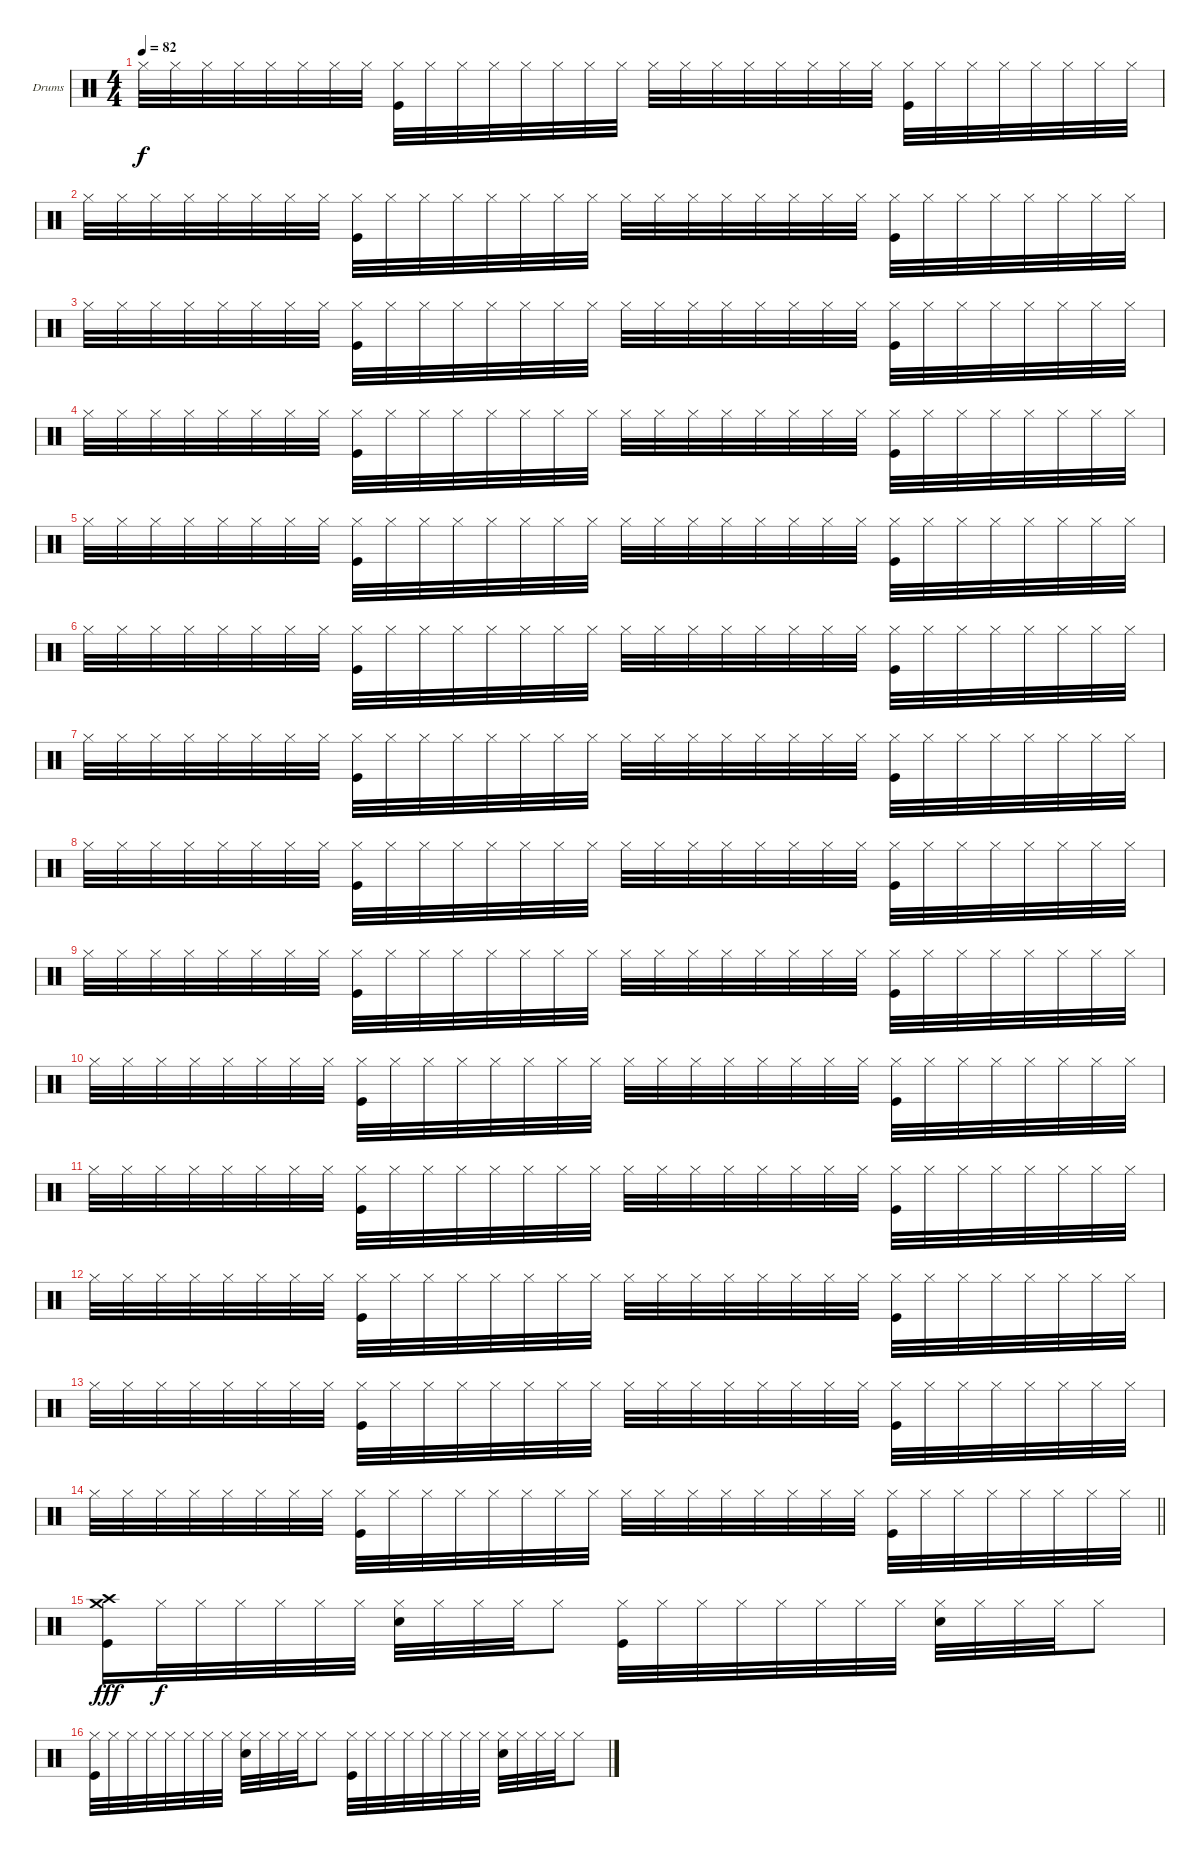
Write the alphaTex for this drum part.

\bracketExtendMode groupsimilarinstruments
\firstSystemTrackNameOrientation horizontal
\otherSystemsTrackNameOrientation horizontal
\track ("Александр Манякин" "Drums") {instrument percussion}
\staff {score}
\articulation defaults
\ts (4 4)
\tempo 82
\clef neutral
\ks c "Hi-Hat (closed)".32{dy f} "Hi-Hat (closed)".32 "Hi-Hat (closed)".32 "Hi-Hat (closed)".32 "Hi-Hat (closed)".32 "Hi-Hat (closed)".32 "Hi-Hat (closed)".32 "Hi-Hat (closed)".32
("Hi-Hat (closed)" "Kick (hit)").32 "Hi-Hat (closed)".32 "Hi-Hat (closed)".32 "Hi-Hat (closed)".32 "Hi-Hat (closed)".32 "Hi-Hat (closed)".32 "Hi-Hat (closed)".32 "Hi-Hat (closed)".32 "Hi-Hat (closed)".32 "Hi-Hat (closed)".32 "Hi-Hat (closed)".32 "Hi-Hat (closed)".32 "Hi-Hat (closed)".32 "Hi-Hat (closed)".32 "Hi-Hat (closed)".32 "Hi-Hat (closed)".32 ("Hi-Hat (closed)" "Kick (hit)").32 "Hi-Hat (closed)".32 "Hi-Hat (closed)".32 "Hi-Hat (closed)".32 "Hi-Hat (closed)".32 "Hi-Hat (closed)".32 "Hi-Hat (closed)".32 "Hi-Hat (closed)".32 |
"Hi-Hat (closed)".32 "Hi-Hat (closed)".32 "Hi-Hat (closed)".32 "Hi-Hat (closed)".32 "Hi-Hat (closed)".32 "Hi-Hat (closed)".32 "Hi-Hat (closed)".32 "Hi-Hat (closed)".32 ("Hi-Hat (closed)" "Kick (hit)").32 "Hi-Hat (closed)".32 "Hi-Hat (closed)".32 "Hi-Hat (closed)".32 "Hi-Hat (closed)".32 "Hi-Hat (closed)".32 "Hi-Hat (closed)".32 "Hi-Hat (closed)".32 "Hi-Hat (closed)".32 "Hi-Hat (closed)".32 "Hi-Hat (closed)".32 "Hi-Hat (closed)".32 "Hi-Hat (closed)".32 "Hi-Hat (closed)".32 "Hi-Hat (closed)".32 "Hi-Hat (closed)".32 ("Hi-Hat (closed)" "Kick (hit)").32 "Hi-Hat (closed)".32 "Hi-Hat (closed)".32 "Hi-Hat (closed)".32 "Hi-Hat (closed)".32 "Hi-Hat (closed)".32 "Hi-Hat (closed)".32 "Hi-Hat (closed)".32 |
"Hi-Hat (closed)".32 "Hi-Hat (closed)".32 "Hi-Hat (closed)".32 "Hi-Hat (closed)".32 "Hi-Hat (closed)".32 "Hi-Hat (closed)".32 "Hi-Hat (closed)".32 "Hi-Hat (closed)".32 ("Hi-Hat (closed)" "Kick (hit)").32 "Hi-Hat (closed)".32 "Hi-Hat (closed)".32 "Hi-Hat (closed)".32 "Hi-Hat (closed)".32 "Hi-Hat (closed)".32 "Hi-Hat (closed)".32 "Hi-Hat (closed)".32 "Hi-Hat (closed)".32 "Hi-Hat (closed)".32 "Hi-Hat (closed)".32 "Hi-Hat (closed)".32 "Hi-Hat (closed)".32 "Hi-Hat (closed)".32 "Hi-Hat (closed)".32 "Hi-Hat (closed)".32 ("Hi-Hat (closed)" "Kick (hit)").32 "Hi-Hat (closed)".32 "Hi-Hat (closed)".32 "Hi-Hat (closed)".32 "Hi-Hat (closed)".32 "Hi-Hat (closed)".32 "Hi-Hat (closed)".32 "Hi-Hat (closed)".32 |
"Hi-Hat (closed)".32 "Hi-Hat (closed)".32 "Hi-Hat (closed)".32 "Hi-Hat (closed)".32 "Hi-Hat (closed)".32 "Hi-Hat (closed)".32 "Hi-Hat (closed)".32 "Hi-Hat (closed)".32 ("Hi-Hat (closed)" "Kick (hit)").32 "Hi-Hat (closed)".32 "Hi-Hat (closed)".32 "Hi-Hat (closed)".32 "Hi-Hat (closed)".32 "Hi-Hat (closed)".32 "Hi-Hat (closed)".32 "Hi-Hat (closed)".32 "Hi-Hat (closed)".32 "Hi-Hat (closed)".32 "Hi-Hat (closed)".32 "Hi-Hat (closed)".32 "Hi-Hat (closed)".32 "Hi-Hat (closed)".32 "Hi-Hat (closed)".32 "Hi-Hat (closed)".32 ("Hi-Hat (closed)" "Kick (hit)").32 "Hi-Hat (closed)".32 "Hi-Hat (closed)".32 "Hi-Hat (closed)".32 "Hi-Hat (closed)".32 "Hi-Hat (closed)".32 "Hi-Hat (closed)".32 "Hi-Hat (closed)".32 |
"Hi-Hat (closed)".32 "Hi-Hat (closed)".32 "Hi-Hat (closed)".32 "Hi-Hat (closed)".32 "Hi-Hat (closed)".32 "Hi-Hat (closed)".32 "Hi-Hat (closed)".32 "Hi-Hat (closed)".32 ("Hi-Hat (closed)" "Kick (hit)").32 "Hi-Hat (closed)".32 "Hi-Hat (closed)".32 "Hi-Hat (closed)".32 "Hi-Hat (closed)".32 "Hi-Hat (closed)".32 "Hi-Hat (closed)".32 "Hi-Hat (closed)".32 "Hi-Hat (closed)".32 "Hi-Hat (closed)".32 "Hi-Hat (closed)".32 "Hi-Hat (closed)".32 "Hi-Hat (closed)".32 "Hi-Hat (closed)".32 "Hi-Hat (closed)".32 "Hi-Hat (closed)".32 ("Hi-Hat (closed)" "Kick (hit)").32 "Hi-Hat (closed)".32 "Hi-Hat (closed)".32 "Hi-Hat (closed)".32 "Hi-Hat (closed)".32 "Hi-Hat (closed)".32 "Hi-Hat (closed)".32 "Hi-Hat (closed)".32 |
"Hi-Hat (closed)".32 "Hi-Hat (closed)".32 "Hi-Hat (closed)".32 "Hi-Hat (closed)".32 "Hi-Hat (closed)".32 "Hi-Hat (closed)".32 "Hi-Hat (closed)".32 "Hi-Hat (closed)".32 ("Hi-Hat (closed)" "Kick (hit)").32 "Hi-Hat (closed)".32 "Hi-Hat (closed)".32 "Hi-Hat (closed)".32 "Hi-Hat (closed)".32 "Hi-Hat (closed)".32 "Hi-Hat (closed)".32 "Hi-Hat (closed)".32 "Hi-Hat (closed)".32 "Hi-Hat (closed)".32 "Hi-Hat (closed)".32 "Hi-Hat (closed)".32 "Hi-Hat (closed)".32 "Hi-Hat (closed)".32 "Hi-Hat (closed)".32 "Hi-Hat (closed)".32 ("Hi-Hat (closed)" "Kick (hit)").32 "Hi-Hat (closed)".32 "Hi-Hat (closed)".32 "Hi-Hat (closed)".32 "Hi-Hat (closed)".32 "Hi-Hat (closed)".32 "Hi-Hat (closed)".32 "Hi-Hat (closed)".32 |
"Hi-Hat (closed)".32 "Hi-Hat (closed)".32 "Hi-Hat (closed)".32 "Hi-Hat (closed)".32 "Hi-Hat (closed)".32 "Hi-Hat (closed)".32 "Hi-Hat (closed)".32 "Hi-Hat (closed)".32 ("Hi-Hat (closed)" "Kick (hit)").32 "Hi-Hat (closed)".32 "Hi-Hat (closed)".32 "Hi-Hat (closed)".32 "Hi-Hat (closed)".32 "Hi-Hat (closed)".32 "Hi-Hat (closed)".32 "Hi-Hat (closed)".32 "Hi-Hat (closed)".32 "Hi-Hat (closed)".32 "Hi-Hat (closed)".32 "Hi-Hat (closed)".32 "Hi-Hat (closed)".32 "Hi-Hat (closed)".32 "Hi-Hat (closed)".32 "Hi-Hat (closed)".32 ("Hi-Hat (closed)" "Kick (hit)").32 "Hi-Hat (closed)".32 "Hi-Hat (closed)".32 "Hi-Hat (closed)".32 "Hi-Hat (closed)".32 "Hi-Hat (closed)".32 "Hi-Hat (closed)".32 "Hi-Hat (closed)".32 |
"Hi-Hat (closed)".32 "Hi-Hat (closed)".32 "Hi-Hat (closed)".32 "Hi-Hat (closed)".32 "Hi-Hat (closed)".32 "Hi-Hat (closed)".32 "Hi-Hat (closed)".32 "Hi-Hat (closed)".32 ("Hi-Hat (closed)" "Kick (hit)").32 "Hi-Hat (closed)".32 "Hi-Hat (closed)".32 "Hi-Hat (closed)".32 "Hi-Hat (closed)".32 "Hi-Hat (closed)".32 "Hi-Hat (closed)".32 "Hi-Hat (closed)".32 "Hi-Hat (closed)".32 "Hi-Hat (closed)".32 "Hi-Hat (closed)".32 "Hi-Hat (closed)".32 "Hi-Hat (closed)".32 "Hi-Hat (closed)".32 "Hi-Hat (closed)".32 "Hi-Hat (closed)".32 ("Hi-Hat (closed)" "Kick (hit)").32 "Hi-Hat (closed)".32 "Hi-Hat (closed)".32 "Hi-Hat (closed)".32 "Hi-Hat (closed)".32 "Hi-Hat (closed)".32 "Hi-Hat (closed)".32 "Hi-Hat (closed)".32 |
"Hi-Hat (closed)".32 "Hi-Hat (closed)".32 "Hi-Hat (closed)".32 "Hi-Hat (closed)".32 "Hi-Hat (closed)".32 "Hi-Hat (closed)".32 "Hi-Hat (closed)".32 "Hi-Hat (closed)".32 ("Hi-Hat (closed)" "Kick (hit)").32 "Hi-Hat (closed)".32 "Hi-Hat (closed)".32 "Hi-Hat (closed)".32 "Hi-Hat (closed)".32 "Hi-Hat (closed)".32 "Hi-Hat (closed)".32 "Hi-Hat (closed)".32 "Hi-Hat (closed)".32 "Hi-Hat (closed)".32 "Hi-Hat (closed)".32 "Hi-Hat (closed)".32 "Hi-Hat (closed)".32 "Hi-Hat (closed)".32 "Hi-Hat (closed)".32 "Hi-Hat (closed)".32 ("Hi-Hat (closed)" "Kick (hit)").32 "Hi-Hat (closed)".32 "Hi-Hat (closed)".32 "Hi-Hat (closed)".32 "Hi-Hat (closed)".32 "Hi-Hat (closed)".32 "Hi-Hat (closed)".32 "Hi-Hat (closed)".32 |
"Hi-Hat (closed)".32 "Hi-Hat (closed)".32 "Hi-Hat (closed)".32 "Hi-Hat (closed)".32 "Hi-Hat (closed)".32 "Hi-Hat (closed)".32 "Hi-Hat (closed)".32 "Hi-Hat (closed)".32 ("Hi-Hat (closed)" "Kick (hit)").32 "Hi-Hat (closed)".32 "Hi-Hat (closed)".32 "Hi-Hat (closed)".32 "Hi-Hat (closed)".32 "Hi-Hat (closed)".32 "Hi-Hat (closed)".32 "Hi-Hat (closed)".32 "Hi-Hat (closed)".32 "Hi-Hat (closed)".32 "Hi-Hat (closed)".32 "Hi-Hat (closed)".32 "Hi-Hat (closed)".32 "Hi-Hat (closed)".32 "Hi-Hat (closed)".32 "Hi-Hat (closed)".32 ("Hi-Hat (closed)" "Kick (hit)").32 "Hi-Hat (closed)".32 "Hi-Hat (closed)".32 "Hi-Hat (closed)".32 "Hi-Hat (closed)".32 "Hi-Hat (closed)".32 "Hi-Hat (closed)".32 "Hi-Hat (closed)".32 |
"Hi-Hat (closed)".32 "Hi-Hat (closed)".32 "Hi-Hat (closed)".32 "Hi-Hat (closed)".32 "Hi-Hat (closed)".32 "Hi-Hat (closed)".32 "Hi-Hat (closed)".32 "Hi-Hat (closed)".32 ("Hi-Hat (closed)" "Kick (hit)").32 "Hi-Hat (closed)".32 "Hi-Hat (closed)".32 "Hi-Hat (closed)".32 "Hi-Hat (closed)".32 "Hi-Hat (closed)".32 "Hi-Hat (closed)".32 "Hi-Hat (closed)".32 "Hi-Hat (closed)".32 "Hi-Hat (closed)".32 "Hi-Hat (closed)".32 "Hi-Hat (closed)".32 "Hi-Hat (closed)".32 "Hi-Hat (closed)".32 "Hi-Hat (closed)".32 "Hi-Hat (closed)".32 ("Hi-Hat (closed)" "Kick (hit)").32 "Hi-Hat (closed)".32 "Hi-Hat (closed)".32 "Hi-Hat (closed)".32 "Hi-Hat (closed)".32 "Hi-Hat (closed)".32 "Hi-Hat (closed)".32 "Hi-Hat (closed)".32 |
"Hi-Hat (closed)".32 "Hi-Hat (closed)".32 "Hi-Hat (closed)".32 "Hi-Hat (closed)".32 "Hi-Hat (closed)".32 "Hi-Hat (closed)".32 "Hi-Hat (closed)".32 "Hi-Hat (closed)".32 ("Hi-Hat (closed)" "Kick (hit)").32 "Hi-Hat (closed)".32 "Hi-Hat (closed)".32 "Hi-Hat (closed)".32 "Hi-Hat (closed)".32 "Hi-Hat (closed)".32 "Hi-Hat (closed)".32 "Hi-Hat (closed)".32 "Hi-Hat (closed)".32 "Hi-Hat (closed)".32 "Hi-Hat (closed)".32 "Hi-Hat (closed)".32 "Hi-Hat (closed)".32 "Hi-Hat (closed)".32 "Hi-Hat (closed)".32 "Hi-Hat (closed)".32 ("Hi-Hat (closed)" "Kick (hit)").32 "Hi-Hat (closed)".32 "Hi-Hat (closed)".32 "Hi-Hat (closed)".32 "Hi-Hat (closed)".32 "Hi-Hat (closed)".32 "Hi-Hat (closed)".32 "Hi-Hat (closed)".32 |
"Hi-Hat (closed)".32 "Hi-Hat (closed)".32 "Hi-Hat (closed)".32 "Hi-Hat (closed)".32 "Hi-Hat (closed)".32 "Hi-Hat (closed)".32 "Hi-Hat (closed)".32 "Hi-Hat (closed)".32 ("Hi-Hat (closed)" "Kick (hit)").32 "Hi-Hat (closed)".32 "Hi-Hat (closed)".32 "Hi-Hat (closed)".32 "Hi-Hat (closed)".32 "Hi-Hat (closed)".32 "Hi-Hat (closed)".32 "Hi-Hat (closed)".32 "Hi-Hat (closed)".32 "Hi-Hat (closed)".32 "Hi-Hat (closed)".32 "Hi-Hat (closed)".32 "Hi-Hat (closed)".32 "Hi-Hat (closed)".32 "Hi-Hat (closed)".32 "Hi-Hat (closed)".32 ("Hi-Hat (closed)" "Kick (hit)").32 "Hi-Hat (closed)".32 "Hi-Hat (closed)".32 "Hi-Hat (closed)".32 "Hi-Hat (closed)".32 "Hi-Hat (closed)".32 "Hi-Hat (closed)".32 "Hi-Hat (closed)".32 |
\barLineRight lightlight "Hi-Hat (closed)".32 "Hi-Hat (closed)".32 "Hi-Hat (closed)".32 "Hi-Hat (closed)".32 "Hi-Hat (closed)".32 "Hi-Hat (closed)".32 "Hi-Hat (closed)".32 "Hi-Hat (closed)".32
("Hi-Hat (closed)" "Kick (hit)").32 "Hi-Hat (closed)".32 "Hi-Hat (closed)".32 "Hi-Hat (closed)".32 "Hi-Hat (closed)".32 "Hi-Hat (closed)".32 "Hi-Hat (closed)".32 "Hi-Hat (closed)".32 "Hi-Hat (closed)".32 "Hi-Hat (closed)".32 "Hi-Hat (closed)".32 "Hi-Hat (closed)".32 "Hi-Hat (closed)".32 "Hi-Hat (closed)".32 "Hi-Hat (closed)".32 "Hi-Hat (closed)".32 ("Hi-Hat (closed)" "Kick (hit)").32 "Hi-Hat (closed)".32 "Hi-Hat (closed)".32 "Hi-Hat (closed)".32 "Hi-Hat (closed)".32 "Hi-Hat (closed)".32 "Hi-Hat (closed)".32 "Hi-Hat (closed)".32 |
("Crash medium (hit)" "Crash high (hit)" "Kick (hit)").16{dy fff} "Hi-Hat (closed)".32{dy f} "Hi-Hat (closed)".32 "Hi-Hat (closed)".32 "Hi-Hat (closed)".32 "Hi-Hat (closed)".32 "Hi-Hat (closed)".32 ("Hi-Hat (closed)" "Snare (hit) 2").32 "Hi-Hat (closed)".32 "Hi-Hat (closed)".32 "Hi-Hat (closed)".32 "Hi-Hat (closed)".8 ("Hi-Hat (closed)" "Kick (hit)").32 "Hi-Hat (closed)".32 "Hi-Hat (closed)".32 "Hi-Hat (closed)".32 "Hi-Hat (closed)".32 "Hi-Hat (closed)".32 "Hi-Hat (closed)".32 "Hi-Hat (closed)".32 ("Hi-Hat (closed)" "Snare (hit) 2").32 "Hi-Hat (closed)".32 "Hi-Hat (closed)".32 "Hi-Hat (closed)".32 "Hi-Hat (closed)".8 |
("Hi-Hat (closed)" "Kick (hit)").32 "Hi-Hat (closed)".32 "Hi-Hat (closed)".32 "Hi-Hat (closed)".32 "Hi-Hat (closed)".32 "Hi-Hat (closed)".32 "Hi-Hat (closed)".32 "Hi-Hat (closed)".32 ("Hi-Hat (closed)" "Snare (hit) 2").32 "Hi-Hat (closed)".32 "Hi-Hat (closed)".32 "Hi-Hat (closed)".32 "Hi-Hat (closed)".8 ("Hi-Hat (closed)" "Kick (hit)").32 "Hi-Hat (closed)".32 "Hi-Hat (closed)".32 "Hi-Hat (closed)".32 "Hi-Hat (closed)".32 "Hi-Hat (closed)".32 "Hi-Hat (closed)".32 "Hi-Hat (closed)".32 ("Hi-Hat (closed)" "Snare (hit) 2").32 "Hi-Hat (closed)".32 "Hi-Hat (closed)".32 "Hi-Hat (closed)".32 "Hi-Hat (closed)".8
